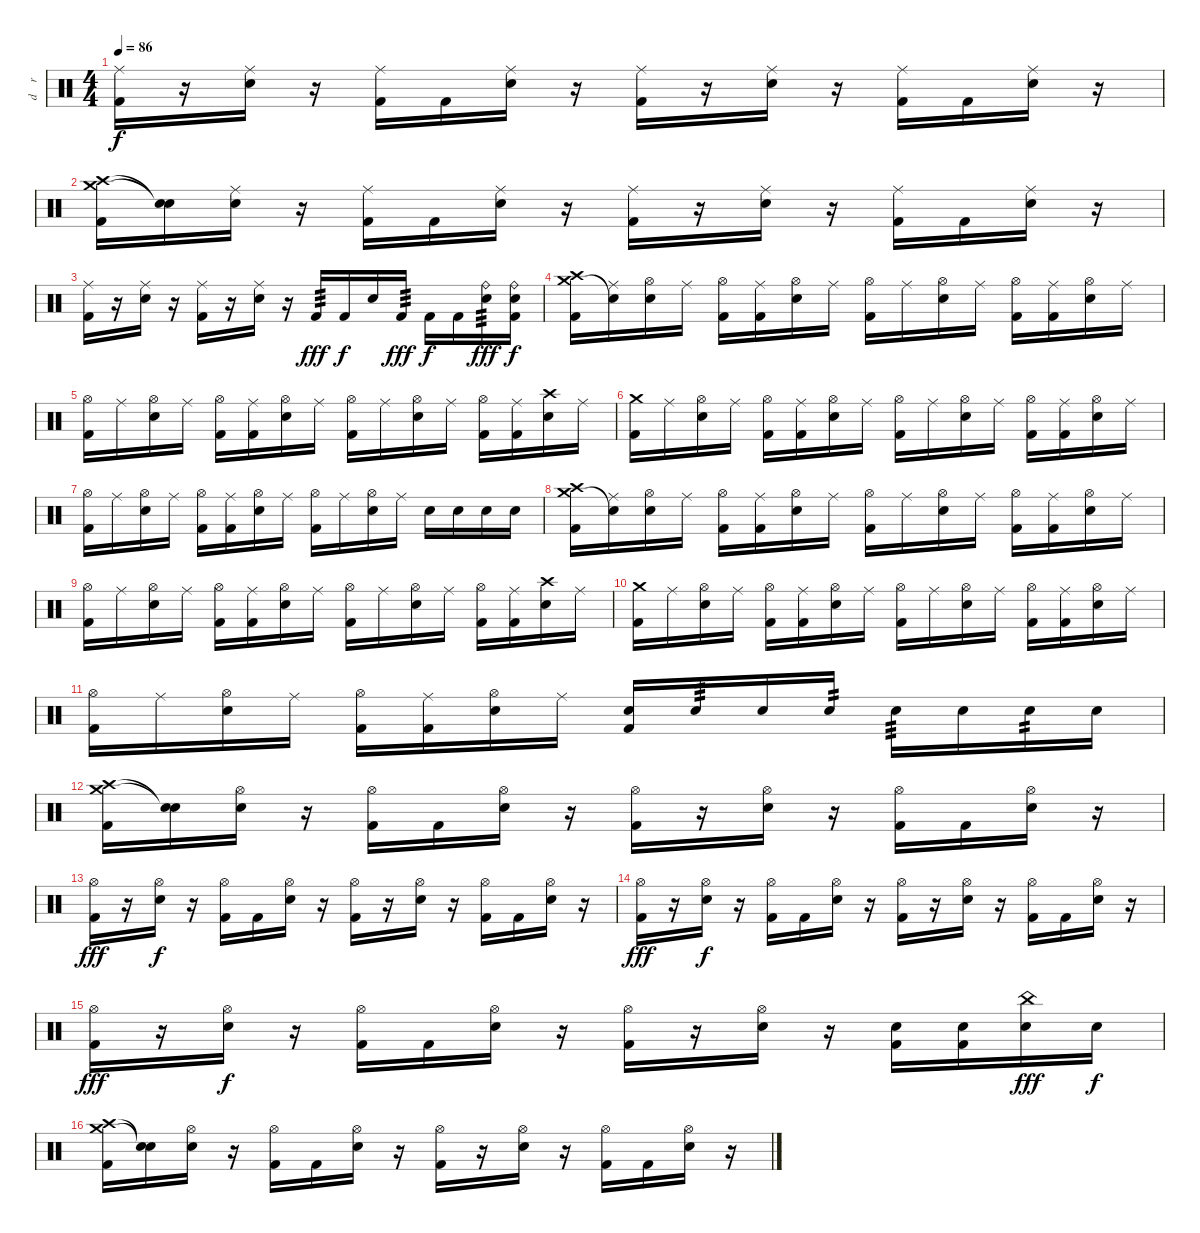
\track ("d    r     u    m    s" "d    r    ") {instrument percussion}
\staff {score}
\articulation defaults
\ts (4 4)
\tempo 86
\clef neutral
\ks c
("Ride (middle)" "Kick (hit) 2").16{dy f} r.16 ("Ride (middle)" "Electric Snare (hit)").16 r.16 ("Ride (middle)" "Kick (hit) 2").16 "Kick (hit) 2".16 ("Ride (middle)" "Electric Snare (hit)").16 r.16 ("Ride (middle)" "Kick (hit) 2").16 r.16 ("Ride (middle)" "Electric Snare (hit)").16 r.16 ("Ride (middle)" "Kick (hit) 2").16 "Kick (hit) 2".16 ("Ride (middle)" "Electric Snare (hit)").16 r.16 |
("Crash high (hit)" "Crash medium (hit)" "Kick (hit) 2").16 ("Snare (hit)"{t} "Snare (hit)"{t}).16 ("Ride (middle)" "Electric Snare (hit)").16 r.16 ("Ride (middle)" "Kick (hit) 2").16 "Kick (hit) 2".16 ("Ride (middle)" "Electric Snare (hit)").16 r.16 ("Ride (middle)" "Kick (hit) 2").16 r.16 ("Ride (middle)" "Electric Snare (hit)").16 r.16 ("Ride (middle)" "Kick (hit) 2").16 "Kick (hit) 2".16 ("Ride (middle)" "Electric Snare (hit)").16 r.16 |
("Ride (middle)" "Kick (hit) 2").16 r.16 ("Ride (middle)" "Electric Snare (hit)").16 r.16 ("Ride (middle)" "Kick (hit) 2").16 r.16 ("Ride (middle)" "Electric Snare (hit)").16 r.16 "Kick (hit) 2".16{tp 3 dy fff} "Kick (hit) 2".16{dy f} "Electric Snare (hit)".16 "Kick (hit) 2".16{tp 3 dy fff} "Kick (hit) 2".16{dy f} "Kick (hit) 2".16 ("Ride (bell)" "Electric Snare (hit)").16{tp 3 dy fff} ("Ride (bell)" "Electric Snare (hit)" "Kick (hit) 2").16{dy f} |
("Crash high (hit)" "Crash medium (hit)" "Kick (hit) 2").16 ("Ride (middle)" "Snare (hit)"{t}).16 ("Hi-Hat (open)" "Electric Snare (hit)").16 "Ride (middle)".16 ("Hi-Hat (open)" "Kick (hit) 2").16 ("Ride (middle)" "Kick (hit) 2").16 ("Hi-Hat (open)" "Electric Snare (hit)").16 "Ride (middle)".16 ("Hi-Hat (open)" "Kick (hit) 2").16 "Ride (middle)".16 ("Hi-Hat (open)" "Electric Snare (hit)").16 "Ride (middle)".16 ("Hi-Hat (open)" "Kick (hit) 2").16 ("Ride (middle)" "Kick (hit) 2").16 ("Hi-Hat (open)" "Electric Snare (hit)").16 "Ride (middle)".16 |
("Hi-Hat (open)" "Kick (hit) 2").16 "Ride (middle)".16 ("Hi-Hat (open)" "Electric Snare (hit)").16 "Ride (middle)".16 ("Hi-Hat (open)" "Kick (hit) 2").16 ("Ride (middle)" "Kick (hit) 2").16 ("Hi-Hat (open)" "Electric Snare (hit)").16 "Ride (middle)".16 ("Hi-Hat (open)" "Kick (hit) 2").16 "Ride (middle)".16 ("Hi-Hat (open)" "Electric Snare (hit)").16 "Ride (middle)".16 ("Hi-Hat (open)" "Kick (hit) 2").16 ("Ride (middle)" "Kick (hit) 2").16 ("Crash high (hit)" "Electric Snare (hit)").16 "Ride (middle)".16 |
("Crash medium (hit)" "Kick (hit) 2").16 "Ride (middle)".16 ("Hi-Hat (open)" "Electric Snare (hit)").16 "Ride (middle)".16 ("Hi-Hat (open)" "Kick (hit) 2").16 ("Ride (middle)" "Kick (hit) 2").16 ("Hi-Hat (open)" "Electric Snare (hit)").16 "Ride (middle)".16 ("Hi-Hat (open)" "Kick (hit) 2").16 "Ride (middle)".16 ("Hi-Hat (open)" "Electric Snare (hit)").16 "Ride (middle)".16 ("Hi-Hat (open)" "Kick (hit) 2").16 ("Ride (middle)" "Kick (hit) 2").16 ("Hi-Hat (open)" "Electric Snare (hit)").16 "Ride (middle)".16 |
("Hi-Hat (open)" "Kick (hit) 2").16 "Ride (middle)".16 ("Hi-Hat (open)" "Electric Snare (hit)").16 "Ride (middle)".16 ("Hi-Hat (open)" "Kick (hit) 2").16 ("Ride (middle)" "Kick (hit) 2").16 ("Hi-Hat (open)" "Electric Snare (hit)").16 "Ride (middle)".16 ("Hi-Hat (open)" "Kick (hit) 2").16 "Ride (middle)".16 ("Hi-Hat (open)" "Electric Snare (hit)").16 "Ride (middle)".16 "Electric Snare (hit)".16 "Electric Snare (hit)".16 "Electric Snare (hit)".16 "Electric Snare (hit)".16 |
("Crash high (hit)" "Crash medium (hit)" "Kick (hit) 2").16 ("Ride (middle)" "Snare (hit)"{t}).16 ("Hi-Hat (open)" "Electric Snare (hit)").16 "Ride (middle)".16 ("Hi-Hat (open)" "Kick (hit) 2").16 ("Ride (middle)" "Kick (hit) 2").16 ("Hi-Hat (open)" "Electric Snare (hit)").16 "Ride (middle)".16 ("Hi-Hat (open)" "Kick (hit) 2").16 "Ride (middle)".16 ("Hi-Hat (open)" "Electric Snare (hit)").16 "Ride (middle)".16 ("Hi-Hat (open)" "Kick (hit) 2").16 ("Ride (middle)" "Kick (hit) 2").16 ("Hi-Hat (open)" "Electric Snare (hit)").16 "Ride (middle)".16 |
("Hi-Hat (open)" "Kick (hit) 2").16 "Ride (middle)".16 ("Hi-Hat (open)" "Electric Snare (hit)").16 "Ride (middle)".16 ("Hi-Hat (open)" "Kick (hit) 2").16 ("Ride (middle)" "Kick (hit) 2").16 ("Hi-Hat (open)" "Electric Snare (hit)").16 "Ride (middle)".16 ("Hi-Hat (open)" "Kick (hit) 2").16 "Ride (middle)".16 ("Hi-Hat (open)" "Electric Snare (hit)").16 "Ride (middle)".16 ("Hi-Hat (open)" "Kick (hit) 2").16 ("Ride (middle)" "Kick (hit) 2").16 ("Crash high (hit)" "Electric Snare (hit)").16 "Ride (middle)".16 |
("Crash medium (hit)" "Kick (hit) 2").16 "Ride (middle)".16 ("Hi-Hat (open)" "Electric Snare (hit)").16 "Ride (middle)".16 ("Hi-Hat (open)" "Kick (hit) 2").16 ("Ride (middle)" "Kick (hit) 2").16 ("Hi-Hat (open)" "Electric Snare (hit)").16 "Ride (middle)".16 ("Hi-Hat (open)" "Kick (hit) 2").16 "Ride (middle)".16 ("Hi-Hat (open)" "Electric Snare (hit)").16 "Ride (middle)".16 ("Hi-Hat (open)" "Kick (hit) 2").16 ("Ride (middle)" "Kick (hit) 2").16 ("Hi-Hat (open)" "Electric Snare (hit)").16 "Ride (middle)".16 |
("Hi-Hat (open)" "Kick (hit) 2").16 "Ride (middle)".16 ("Hi-Hat (open)" "Electric Snare (hit)").16 "Ride (middle)".16 ("Hi-Hat (open)" "Kick (hit) 2").16 ("Ride (middle)" "Kick (hit) 2").16 ("Hi-Hat (open)" "Electric Snare (hit)").16 "Ride (middle)".16 ("Electric Snare (hit)" "Kick (hit) 2").16 "Electric Snare (hit)".16{tp 3} "Electric Snare (hit)".16 "Electric Snare (hit)".16{tp 2} "Electric Snare (hit)".16{tp 3} "Electric Snare (hit)".16 "Electric Snare (hit)".16{tp 2} "Electric Snare (hit)".16 |
("Crash high (hit)" "Crash medium (hit)" "Kick (hit) 2").16 ("Snare (hit)"{t} "Snare (hit)"{t}).16 ("Hi-Hat (open)" "Electric Snare (hit)").16 r.16 ("Hi-Hat (open)" "Kick (hit) 2").16 "Kick (hit) 2".16 ("Hi-Hat (open)" "Electric Snare (hit)").16 r.16 ("Hi-Hat (open)" "Kick (hit) 2").16 r.16 ("Hi-Hat (open)" "Electric Snare (hit)").16 r.16 ("Hi-Hat (open)" "Kick (hit) 2").16 "Kick (hit) 2".16 ("Hi-Hat (open)" "Electric Snare (hit)").16 r.16 |
("Hi-Hat (open)" "Kick (hit) 2").16{dy fff} r.16 ("Hi-Hat (open)" "Electric Snare (hit)").16{dy f} r.16 ("Hi-Hat (open)" "Kick (hit) 2").16 "Kick (hit) 2".16 ("Hi-Hat (open)" "Electric Snare (hit)").16 r.16 ("Hi-Hat (open)" "Kick (hit) 2").16 r.16 ("Hi-Hat (open)" "Electric Snare (hit)").16 r.16 ("Hi-Hat (open)" "Kick (hit) 2").16 "Kick (hit) 2".16 ("Hi-Hat (open)" "Electric Snare (hit)").16 r.16 |
("Hi-Hat (open)" "Kick (hit) 2").16{dy fff} r.16 ("Hi-Hat (open)" "Electric Snare (hit)").16{dy f} r.16 ("Hi-Hat (open)" "Kick (hit) 2").16 "Kick (hit) 2".16 ("Hi-Hat (open)" "Electric Snare (hit)").16 r.16 ("Hi-Hat (open)" "Kick (hit) 2").16 r.16 ("Hi-Hat (open)" "Electric Snare (hit)").16 r.16 ("Hi-Hat (open)" "Kick (hit) 2").16 "Kick (hit) 2".16 ("Hi-Hat (open)" "Electric Snare (hit)").16 r.16 |
("Hi-Hat (open)" "Kick (hit) 2").16{dy fff} r.16 ("Hi-Hat (open)" "Electric Snare (hit)").16{dy f} r.16 ("Hi-Hat (open)" "Kick (hit) 2").16 "Kick (hit) 2".16 ("Hi-Hat (open)" "Electric Snare (hit)").16 r.16 ("Hi-Hat (open)" "Kick (hit) 2").16 r.16 ("Hi-Hat (open)" "Electric Snare (hit)").16 r.16 ("Electric Snare (hit)" "Kick (hit) 2").16 ("Electric Snare (hit)" "Kick (hit) 2").16 ("China (hit)" "Electric Snare (hit)").16{dy fff} "Electric Snare (hit)".16{dy f} |
("Crash high (hit)" "Crash medium (hit)" "Kick (hit) 2").16 ("Snare (hit)"{t} "Snare (hit)"{t}).16 ("Hi-Hat (open)" "Electric Snare (hit)").16 r.16 ("Hi-Hat (open)" "Kick (hit) 2").16 "Kick (hit) 2".16 ("Hi-Hat (open)" "Electric Snare (hit)").16 r.16 ("Hi-Hat (open)" "Kick (hit) 2").16 r.16 ("Hi-Hat (open)" "Electric Snare (hit)").16 r.16 ("Hi-Hat (open)" "Kick (hit) 2").16 "Kick (hit) 2".16 ("Hi-Hat (open)" "Electric Snare (hit)").16 r.16
